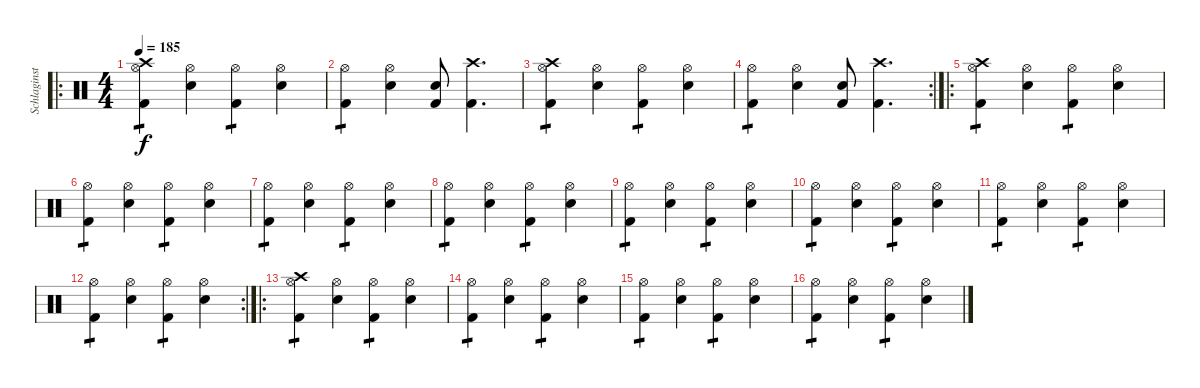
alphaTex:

\track ("Schlaginstrumente - Auswahl" "Schlaginst") {instrument percussion}
\staff {score}
\articulation defaults
\ro
\ts (4 4)
\tempo 185
\clef neutral
\ks c
("Hi-Hat (open)" "Kick (hit) 2" "Crash high (hit)").4{tp 1 dy f} ("Hi-Hat (open)" "Electric Snare (hit)").4 ("Hi-Hat (open)" "Kick (hit) 2").4{tp 1} ("Hi-Hat (open)" "Electric Snare (hit)").4 |
("Hi-Hat (open)" "Kick (hit) 2").4{tp 1} ("Hi-Hat (open)" "Electric Snare (hit)").4 ("Electric Snare (hit)" "Kick (hit) 2").8 ("Crash high (hit)" "Kick (hit) 2").4{d} |
("Hi-Hat (open)" "Kick (hit) 2" "Crash high (hit)").4{tp 1} ("Hi-Hat (open)" "Electric Snare (hit)").4 ("Hi-Hat (open)" "Kick (hit) 2").4{tp 1} ("Hi-Hat (open)" "Electric Snare (hit)").4 |
\rc 2
("Hi-Hat (open)" "Kick (hit) 2").4{tp 1} ("Hi-Hat (open)" "Electric Snare (hit)").4 ("Electric Snare (hit)" "Kick (hit) 2").8 ("Crash high (hit)" "Kick (hit) 2").4{d} |
\ro
("Hi-Hat (open)" "Kick (hit) 2" "Crash high (hit)").4{tp 1} ("Hi-Hat (open)" "Electric Snare (hit)").4 ("Hi-Hat (open)" "Kick (hit) 2").4{tp 1} ("Hi-Hat (open)" "Electric Snare (hit)").4 |
("Hi-Hat (open)" "Kick (hit) 2").4{tp 1} ("Hi-Hat (open)" "Electric Snare (hit)").4 ("Hi-Hat (open)" "Kick (hit) 2").4{tp 1} ("Hi-Hat (open)" "Electric Snare (hit)").4 |
("Hi-Hat (open)" "Kick (hit) 2").4{tp 1} ("Hi-Hat (open)" "Electric Snare (hit)").4 ("Hi-Hat (open)" "Kick (hit) 2").4{tp 1} ("Hi-Hat (open)" "Electric Snare (hit)").4 |
("Hi-Hat (open)" "Kick (hit) 2").4{tp 1} ("Hi-Hat (open)" "Electric Snare (hit)").4 ("Hi-Hat (open)" "Kick (hit) 2").4{tp 1} ("Hi-Hat (open)" "Electric Snare (hit)").4 |
("Hi-Hat (open)" "Kick (hit) 2").4{tp 1} ("Hi-Hat (open)" "Electric Snare (hit)").4 ("Hi-Hat (open)" "Kick (hit) 2").4{tp 1} ("Hi-Hat (open)" "Electric Snare (hit)").4 |
("Hi-Hat (open)" "Kick (hit) 2").4{tp 1} ("Hi-Hat (open)" "Electric Snare (hit)").4 ("Hi-Hat (open)" "Kick (hit) 2").4{tp 1} ("Hi-Hat (open)" "Electric Snare (hit)").4 |
("Hi-Hat (open)" "Kick (hit) 2").4{tp 1} ("Hi-Hat (open)" "Electric Snare (hit)").4 ("Hi-Hat (open)" "Kick (hit) 2").4{tp 1} ("Hi-Hat (open)" "Electric Snare (hit)").4 |
\rc 2
("Hi-Hat (open)" "Kick (hit) 2").4{tp 1} ("Hi-Hat (open)" "Electric Snare (hit)").4 ("Hi-Hat (open)" "Kick (hit) 2").4{tp 1} ("Hi-Hat (open)" "Electric Snare (hit)").4 |
\ro
("Hi-Hat (open)" "Kick (hit) 2" "Crash high (hit)").4{tp 1} ("Hi-Hat (open)" "Electric Snare (hit)").4 ("Hi-Hat (open)" "Kick (hit) 2").4{tp 1} ("Hi-Hat (open)" "Electric Snare (hit)").4 |
("Hi-Hat (open)" "Kick (hit) 2").4{tp 1} ("Hi-Hat (open)" "Electric Snare (hit)").4 ("Hi-Hat (open)" "Kick (hit) 2").4{tp 1} ("Hi-Hat (open)" "Electric Snare (hit)").4 |
("Hi-Hat (open)" "Kick (hit) 2").4{tp 1} ("Hi-Hat (open)" "Electric Snare (hit)").4 ("Hi-Hat (open)" "Kick (hit) 2").4{tp 1} ("Hi-Hat (open)" "Electric Snare (hit)").4 |
("Hi-Hat (open)" "Kick (hit) 2").4{tp 1} ("Hi-Hat (open)" "Electric Snare (hit)").4 ("Hi-Hat (open)" "Kick (hit) 2").4{tp 1} ("Hi-Hat (open)" "Electric Snare (hit)").4
